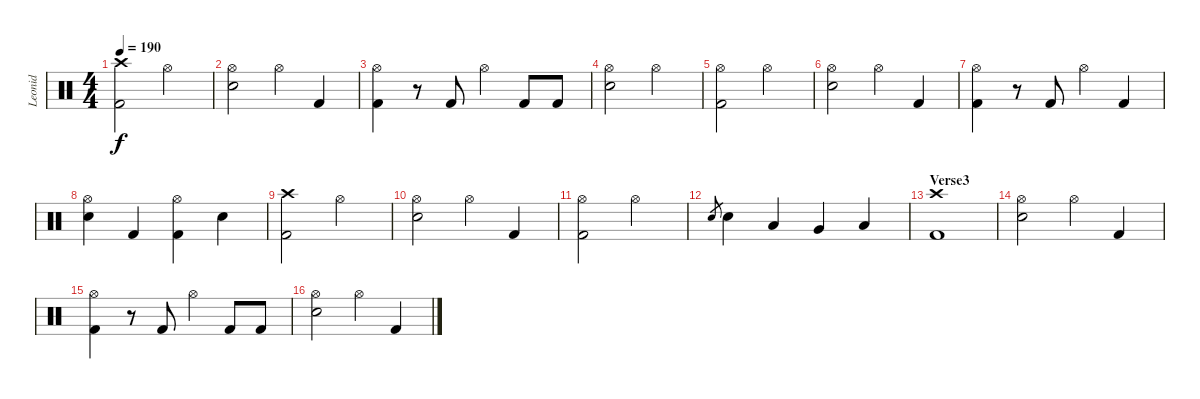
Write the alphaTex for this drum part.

\track ("Leonid" "Leonid") {instrument percussion}
\staff {score}
\articulation defaults
\ts (4 4)
\tempo 190
\clef neutral
\ks c
("Crash high (hit)" "Kick (hit) 2").2{dy f} "Hi-Hat (open)".2 |
("Hi-Hat (open)" "Electric Snare (hit)").2 "Hi-Hat (open)".4 "Kick (hit) 2".4 |
("Hi-Hat (open)" "Kick (hit) 2").4 r.8 "Kick (hit) 2".8 "Hi-Hat (open)".4 "Kick (hit) 2".8 "Kick (hit) 2".8 |
("Hi-Hat (open)" "Electric Snare (hit)").2 "Hi-Hat (open)".2 |
("Hi-Hat (open)" "Kick (hit) 2").2 "Hi-Hat (open)".2 |
("Hi-Hat (open)" "Electric Snare (hit)").2 "Hi-Hat (open)".4 "Kick (hit) 2".4 |
("Hi-Hat (open)" "Kick (hit) 2").4 r.8 "Kick (hit) 2".8 "Hi-Hat (open)".4 "Kick (hit) 2".4 |
("Hi-Hat (open)" "Electric Snare (hit)").4 "Kick (hit) 2".4 ("Hi-Hat (open)" "Kick (hit) 2").4 "Electric Snare (hit)".4 |
("Crash high (hit)" "Kick (hit) 2").2 "Hi-Hat (open)".2 |
("Hi-Hat (open)" "Electric Snare (hit)").2 "Hi-Hat (open)".4 "Kick (hit) 2".4 |
("Hi-Hat (open)" "Kick (hit) 2").2 "Hi-Hat (open)".2 |
"Electric Snare (hit)".8{gr} "Electric Snare (hit)".4 "Low Tom (hit)".4 "Very Low Tom (hit)".4 "Low Floor Tom (hit)".4 |
\section ("" "Verse3")
("Crash high (hit)" "Kick (hit) 2").1 |
("Hi-Hat (open)" "Electric Snare (hit)").2 "Hi-Hat (open)".4 "Kick (hit) 2".4 |
("Hi-Hat (open)" "Kick (hit) 2").4 r.8 "Kick (hit) 2".8 "Hi-Hat (open)".4 "Kick (hit) 2".8 "Kick (hit) 2".8 |
("Hi-Hat (open)" "Electric Snare (hit)").2 "Hi-Hat (open)".4 "Kick (hit) 2".4
